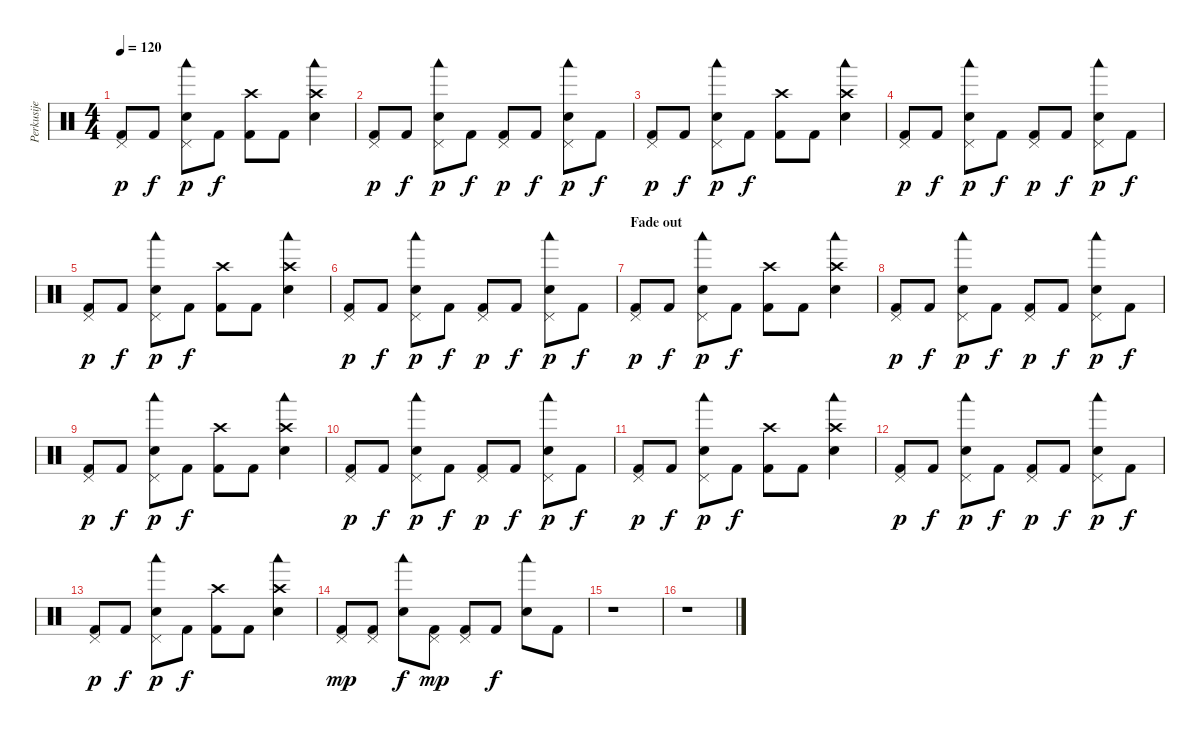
\track ("Perkusije" "Perkusije") {instrument percussion}
\staff {score}
\articulation defaults
\ts (4 4)
\tempo 120
\clef neutral
\ks c
("Pedal Hi-Hat (hit)" "Kick (hit) 2").8{dy p} "Kick (hit) 2".8{dy f} ("Pedal Hi-Hat (hit)" "Electric Snare (hit)" "Woodblock low (hit)").8{dy p} "Kick (hit) 2".8{dy f} ("Crash high (hit)" "Kick (hit) 2").8 "Kick (hit) 2".8 ("Crash high (hit)" "Electric Snare (hit)" "Woodblock low (hit)").4 |
("Pedal Hi-Hat (hit)" "Kick (hit) 2").8{dy p} "Kick (hit) 2".8{dy f} ("Pedal Hi-Hat (hit)" "Electric Snare (hit)" "Woodblock low (hit)").8{dy p} "Kick (hit) 2".8{dy f} ("Pedal Hi-Hat (hit)" "Kick (hit) 2").8{dy p} "Kick (hit) 2".8{dy f} ("Pedal Hi-Hat (hit)" "Electric Snare (hit)" "Woodblock low (hit)").8{dy p} "Kick (hit) 2".8{dy f} |
("Pedal Hi-Hat (hit)" "Kick (hit) 2").8{dy p} "Kick (hit) 2".8{dy f} ("Pedal Hi-Hat (hit)" "Electric Snare (hit)" "Woodblock low (hit)").8{dy p} "Kick (hit) 2".8{dy f} ("Crash high (hit)" "Kick (hit) 2").8 "Kick (hit) 2".8 ("Crash high (hit)" "Electric Snare (hit)" "Woodblock low (hit)").4 |
("Pedal Hi-Hat (hit)" "Kick (hit) 2").8{dy p} "Kick (hit) 2".8{dy f} ("Pedal Hi-Hat (hit)" "Electric Snare (hit)" "Woodblock low (hit)").8{dy p} "Kick (hit) 2".8{dy f} ("Pedal Hi-Hat (hit)" "Kick (hit) 2").8{dy p} "Kick (hit) 2".8{dy f} ("Pedal Hi-Hat (hit)" "Electric Snare (hit)" "Woodblock low (hit)").8{dy p} "Kick (hit) 2".8{dy f} |
("Pedal Hi-Hat (hit)" "Kick (hit) 2").8{dy p} "Kick (hit) 2".8{dy f} ("Pedal Hi-Hat (hit)" "Electric Snare (hit)" "Woodblock low (hit)").8{dy p} "Kick (hit) 2".8{dy f} ("Crash high (hit)" "Kick (hit) 2").8 "Kick (hit) 2".8 ("Crash high (hit)" "Electric Snare (hit)" "Woodblock low (hit)").4 |
("Pedal Hi-Hat (hit)" "Kick (hit) 2").8{dy p} "Kick (hit) 2".8{dy f} ("Pedal Hi-Hat (hit)" "Electric Snare (hit)" "Woodblock low (hit)").8{dy p} "Kick (hit) 2".8{dy f} ("Pedal Hi-Hat (hit)" "Kick (hit) 2").8{dy p} "Kick (hit) 2".8{dy f} ("Pedal Hi-Hat (hit)" "Electric Snare (hit)" "Woodblock low (hit)").8{dy p} "Kick (hit) 2".8{dy f} |
\section ("" "Fade out")
("Pedal Hi-Hat (hit)" "Kick (hit) 2").8{dy p} "Kick (hit) 2".8{dy f} ("Pedal Hi-Hat (hit)" "Electric Snare (hit)" "Woodblock low (hit)").8{dy p} "Kick (hit) 2".8{dy f} ("Crash high (hit)" "Kick (hit) 2").8 "Kick (hit) 2".8 ("Crash high (hit)" "Electric Snare (hit)" "Woodblock low (hit)").4 |
("Pedal Hi-Hat (hit)" "Kick (hit) 2").8{dy p} "Kick (hit) 2".8{dy f} ("Pedal Hi-Hat (hit)" "Electric Snare (hit)" "Woodblock low (hit)").8{dy p} "Kick (hit) 2".8{dy f} ("Pedal Hi-Hat (hit)" "Kick (hit) 2").8{dy p} "Kick (hit) 2".8{dy f} ("Pedal Hi-Hat (hit)" "Electric Snare (hit)" "Woodblock low (hit)").8{dy p} "Kick (hit) 2".8{dy f} |
("Pedal Hi-Hat (hit)" "Kick (hit) 2").8{dy p} "Kick (hit) 2".8{dy f} ("Pedal Hi-Hat (hit)" "Electric Snare (hit)" "Woodblock low (hit)").8{dy p} "Kick (hit) 2".8{dy f} ("Crash high (hit)" "Kick (hit) 2").8 "Kick (hit) 2".8 ("Crash high (hit)" "Electric Snare (hit)" "Woodblock low (hit)").4 |
("Pedal Hi-Hat (hit)" "Kick (hit) 2").8{dy p} "Kick (hit) 2".8{dy f} ("Pedal Hi-Hat (hit)" "Electric Snare (hit)" "Woodblock low (hit)").8{dy p} "Kick (hit) 2".8{dy f} ("Pedal Hi-Hat (hit)" "Kick (hit) 2").8{dy p} "Kick (hit) 2".8{dy f} ("Pedal Hi-Hat (hit)" "Electric Snare (hit)" "Woodblock low (hit)").8{dy p} "Kick (hit) 2".8{dy f} |
("Pedal Hi-Hat (hit)" "Kick (hit) 2").8{dy p} "Kick (hit) 2".8{dy f} ("Pedal Hi-Hat (hit)" "Electric Snare (hit)" "Woodblock low (hit)").8{dy p} "Kick (hit) 2".8{dy f} ("Crash high (hit)" "Kick (hit) 2").8 "Kick (hit) 2".8 ("Crash high (hit)" "Electric Snare (hit)" "Woodblock low (hit)").4 |
("Pedal Hi-Hat (hit)" "Kick (hit) 2").8{dy p} "Kick (hit) 2".8{dy f} ("Pedal Hi-Hat (hit)" "Electric Snare (hit)" "Woodblock low (hit)").8{dy p} "Kick (hit) 2".8{dy f} ("Pedal Hi-Hat (hit)" "Kick (hit) 2").8{dy p} "Kick (hit) 2".8{dy f} ("Pedal Hi-Hat (hit)" "Electric Snare (hit)" "Woodblock low (hit)").8{dy p} "Kick (hit) 2".8{dy f} |
("Pedal Hi-Hat (hit)" "Kick (hit) 2").8{dy p} "Kick (hit) 2".8{dy f} ("Pedal Hi-Hat (hit)" "Electric Snare (hit)" "Woodblock low (hit)").8{dy p} "Kick (hit) 2".8{dy f} ("Crash high (hit)" "Kick (hit) 2").8 "Kick (hit) 2".8 ("Crash high (hit)" "Electric Snare (hit)" "Woodblock low (hit)").4 |
("Pedal Hi-Hat (hit)" "Kick (hit) 2").8{dy mp} ("Pedal Hi-Hat (hit)" "Kick (hit) 2").8 ("Electric Snare (hit)" "Woodblock low (hit)").8{dy f} ("Pedal Hi-Hat (hit)" "Kick (hit) 2").8{dy mp} ("Pedal Hi-Hat (hit)" "Kick (hit) 2").8 "Kick (hit) 2".8{dy f} ("Electric Snare (hit)" "Woodblock low (hit)").8 "Kick (hit) 2".8 |
r.1 |
r.1
